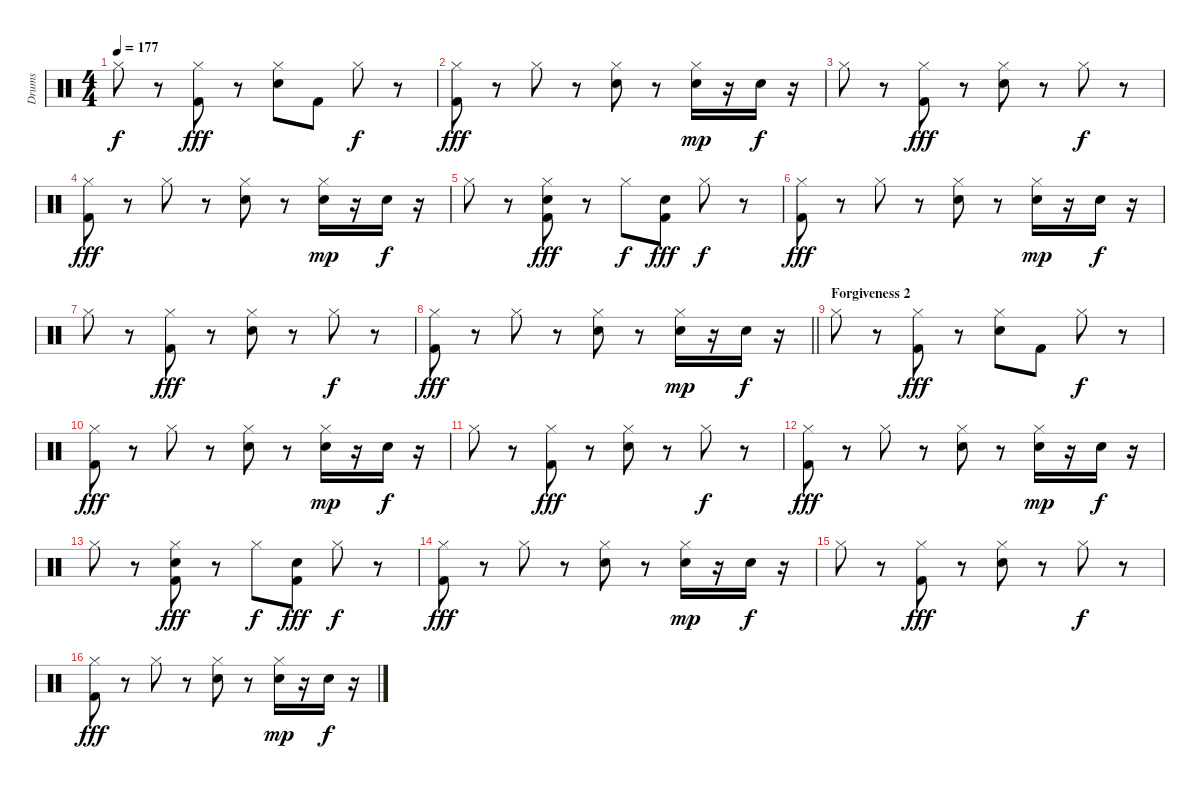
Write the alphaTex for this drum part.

\track ("Drums" "Drums") {instrument percussion}
\staff {score}
\articulation defaults
\ts (4 4)
\tempo 177
\clef neutral
\ks c "Hi-Hat (closed)".8{dy f}
r.8 ("Hi-Hat (closed)" "Kick (hit) 2").8{dy fff} r.8 ("Hi-Hat (closed)" "Snare (hit) 2").8 "Kick (hit) 2".8 "Hi-Hat (closed)".8{dy f} r.8 |
("Hi-Hat (closed)" "Kick (hit) 2").8{dy fff} r.8 "Hi-Hat (closed)".8 r.8 ("Hi-Hat (closed)" "Snare (hit) 2").8 r.8 ("Hi-Hat (closed)" "Snare (hit) 2").16{dy mp} r.16 "Snare (hit) 2".16{dy f} r.16 |
"Hi-Hat (closed)".8 r.8 ("Hi-Hat (closed)" "Kick (hit) 2").8{dy fff} r.8 ("Hi-Hat (closed)" "Snare (hit) 2").8 r.8 "Hi-Hat (closed)".8{dy f} r.8 |
("Hi-Hat (closed)" "Kick (hit) 2").8{dy fff} r.8 "Hi-Hat (closed)".8 r.8 ("Hi-Hat (closed)" "Snare (hit) 2").8 r.8 ("Hi-Hat (closed)" "Snare (hit) 2").16{dy mp} r.16 "Snare (hit) 2".16{dy f} r.16 |
"Hi-Hat (closed)".8 r.8 ("Hi-Hat (closed)" "Snare (hit) 2" "Kick (hit) 2").8{dy fff} r.8 "Hi-Hat (closed)".8{dy f} ("Snare (hit) 2" "Kick (hit) 2").8{dy fff} "Hi-Hat (closed)".8{dy f} r.8 |
("Hi-Hat (closed)" "Kick (hit) 2").8{dy fff} r.8 "Hi-Hat (closed)".8 r.8 ("Hi-Hat (closed)" "Snare (hit) 2").8 r.8 ("Hi-Hat (closed)" "Snare (hit) 2").16{dy mp} r.16 "Snare (hit) 2".16{dy f} r.16 |
"Hi-Hat (closed)".8 r.8 ("Hi-Hat (closed)" "Kick (hit) 2").8{dy fff} r.8 ("Hi-Hat (closed)" "Snare (hit) 2").8 r.8 "Hi-Hat (closed)".8{dy f} r.8 |
\barLineRight lightlight
("Hi-Hat (closed)" "Kick (hit) 2").8{dy fff} r.8 "Hi-Hat (closed)".8 r.8 ("Hi-Hat (closed)" "Snare (hit) 2").8 r.8 ("Hi-Hat (closed)" "Snare (hit) 2").16{dy mp} r.16 "Snare (hit) 2".16{dy f} r.16 |
\section ("" "Forgiveness 2")
"Hi-Hat (closed)".8 r.8 ("Hi-Hat (closed)" "Kick (hit) 2").8{dy fff} r.8 ("Hi-Hat (closed)" "Snare (hit) 2").8 "Kick (hit) 2".8 "Hi-Hat (closed)".8{dy f} r.8 |
("Hi-Hat (closed)" "Kick (hit) 2").8{dy fff} r.8 "Hi-Hat (closed)".8 r.8 ("Hi-Hat (closed)" "Snare (hit) 2").8 r.8 ("Hi-Hat (closed)" "Snare (hit) 2").16{dy mp} r.16 "Snare (hit) 2".16{dy f} r.16 |
"Hi-Hat (closed)".8 r.8 ("Hi-Hat (closed)" "Kick (hit) 2").8{dy fff} r.8 ("Hi-Hat (closed)" "Snare (hit) 2").8 r.8 "Hi-Hat (closed)".8{dy f} r.8 |
("Hi-Hat (closed)" "Kick (hit) 2").8{dy fff} r.8 "Hi-Hat (closed)".8 r.8 ("Hi-Hat (closed)" "Snare (hit) 2").8 r.8 ("Hi-Hat (closed)" "Snare (hit) 2").16{dy mp} r.16 "Snare (hit) 2".16{dy f} r.16 |
"Hi-Hat (closed)".8 r.8 ("Hi-Hat (closed)" "Snare (hit) 2" "Kick (hit) 2").8{dy fff} r.8 "Hi-Hat (closed)".8{dy f} ("Snare (hit) 2" "Kick (hit) 2").8{dy fff} "Hi-Hat (closed)".8{dy f} r.8 |
("Hi-Hat (closed)" "Kick (hit) 2").8{dy fff} r.8 "Hi-Hat (closed)".8 r.8 ("Hi-Hat (closed)" "Snare (hit) 2").8 r.8 ("Hi-Hat (closed)" "Snare (hit) 2").16{dy mp} r.16 "Snare (hit) 2".16{dy f} r.16 |
"Hi-Hat (closed)".8 r.8 ("Hi-Hat (closed)" "Kick (hit) 2").8{dy fff} r.8 ("Hi-Hat (closed)" "Snare (hit) 2").8 r.8 "Hi-Hat (closed)".8{dy f} r.8 |
("Hi-Hat (closed)" "Kick (hit) 2").8{dy fff} r.8 "Hi-Hat (closed)".8 r.8 ("Hi-Hat (closed)" "Snare (hit) 2").8 r.8 ("Hi-Hat (closed)" "Snare (hit) 2").16{dy mp} r.16 "Snare (hit) 2".16{dy f} r.16
